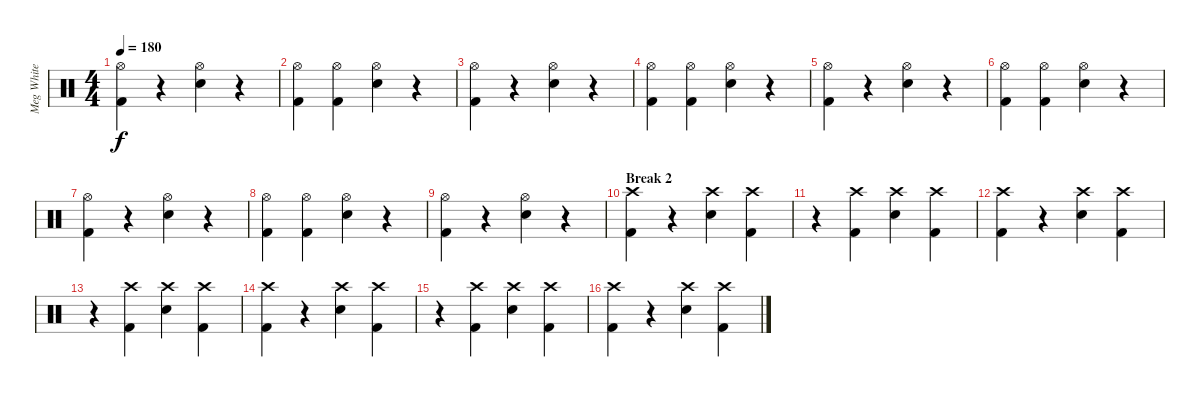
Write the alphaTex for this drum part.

\track ("Meg White" "Meg White") {instrument percussion}
\staff {score}
\articulation defaults
\ts (4 4)
\tempo 180
\clef neutral
\ks c
("Hi-Hat (open)" "Kick (hit) 2").4{dy f} r.4 ("Hi-Hat (open)" "Snare (hit) 2").4 r.4 |
("Hi-Hat (open)" "Kick (hit) 2").4 ("Hi-Hat (open)" "Kick (hit) 2").4 ("Hi-Hat (open)" "Snare (hit) 2").4 r.4 |
("Hi-Hat (open)" "Kick (hit) 2").4 r.4 ("Hi-Hat (open)" "Snare (hit) 2").4 r.4 |
("Hi-Hat (open)" "Kick (hit) 2").4 ("Hi-Hat (open)" "Kick (hit) 2").4 ("Hi-Hat (open)" "Snare (hit) 2").4 r.4 |
("Hi-Hat (open)" "Kick (hit) 2").4 r.4 ("Hi-Hat (open)" "Snare (hit) 2").4 r.4 |
("Hi-Hat (open)" "Kick (hit) 2").4 ("Hi-Hat (open)" "Kick (hit) 2").4 ("Hi-Hat (open)" "Snare (hit) 2").4 r.4 |
("Hi-Hat (open)" "Kick (hit) 2").4 r.4 ("Hi-Hat (open)" "Snare (hit) 2").4 r.4 |
("Hi-Hat (open)" "Kick (hit) 2").4 ("Hi-Hat (open)" "Kick (hit) 2").4 ("Hi-Hat (open)" "Snare (hit) 2").4 r.4 |
("Hi-Hat (open)" "Kick (hit) 2").4 r.4 ("Hi-Hat (open)" "Snare (hit) 2").4 r.4 |
\section ("" "Break 2")
("Crash high (hit)" "Kick (hit) 2").4 r.4 ("Crash high (hit)" "Snare (hit) 2").4 ("Crash high (hit)" "Kick (hit) 2").4 |
r.4 ("Crash high (hit)" "Kick (hit) 2").4 ("Crash high (hit)" "Snare (hit) 2").4 ("Crash high (hit)" "Kick (hit) 2").4 |
("Crash high (hit)" "Kick (hit) 2").4 r.4 ("Crash high (hit)" "Snare (hit) 2").4 ("Crash high (hit)" "Kick (hit) 2").4 |
r.4 ("Crash high (hit)" "Kick (hit) 2").4 ("Crash high (hit)" "Snare (hit) 2").4 ("Crash high (hit)" "Kick (hit) 2").4 |
("Crash high (hit)" "Kick (hit) 2").4 r.4 ("Crash high (hit)" "Snare (hit) 2").4 ("Crash high (hit)" "Kick (hit) 2").4 |
r.4 ("Crash high (hit)" "Kick (hit) 2").4 ("Crash high (hit)" "Snare (hit) 2").4 ("Crash high (hit)" "Kick (hit) 2").4 |
("Crash high (hit)" "Kick (hit) 2").4 r.4 ("Crash high (hit)" "Snare (hit) 2").4 ("Crash high (hit)" "Kick (hit) 2").4
